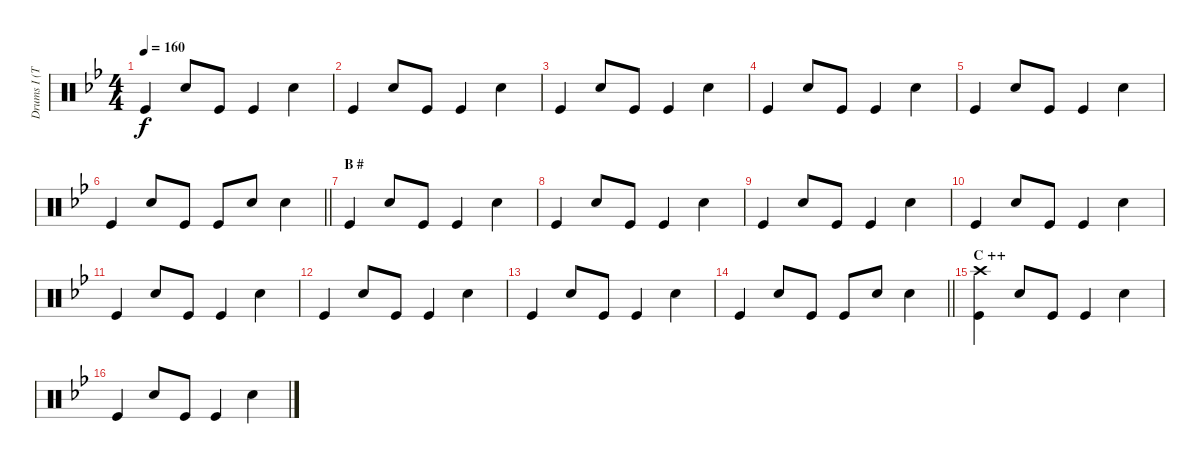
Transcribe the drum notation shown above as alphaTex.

\track ("Drums I (Tainaka Ritsu)" "Drums I (T") {instrument percussion}
\staff {score}
\articulation defaults
\ts (4 4)
\tempo 160
\clef neutral
\ks bb "Kick (hit)".4{dy f} "Snare (hit) 2".8 "Kick (hit)".8 "Kick (hit)".4 "Snare (hit) 2".4
|
"Kick (hit)".4 "Snare (hit) 2".8 "Kick (hit)".8 "Kick (hit)".4 "Snare (hit) 2".4 |
"Kick (hit)".4 "Snare (hit) 2".8 "Kick (hit)".8 "Kick (hit)".4 "Snare (hit) 2".4 |
"Kick (hit)".4 "Snare (hit) 2".8 "Kick (hit)".8 "Kick (hit)".4 "Snare (hit) 2".4 |
"Kick (hit)".4 "Snare (hit) 2".8 "Kick (hit)".8 "Kick (hit)".4 "Snare (hit) 2".4 |
\barLineRight lightlight "Kick (hit)".4 "Snare (hit) 2".8 "Kick (hit)".8 "Kick (hit)".8 "Snare (hit) 2".8 "Snare (hit) 2".4
|
\section ("" "B #")
"Kick (hit)".4 "Snare (hit) 2".8 "Kick (hit)".8 "Kick (hit)".4 "Snare (hit) 2".4 |
"Kick (hit)".4 "Snare (hit) 2".8 "Kick (hit)".8 "Kick (hit)".4 "Snare (hit) 2".4 |
"Kick (hit)".4 "Snare (hit) 2".8 "Kick (hit)".8 "Kick (hit)".4 "Snare (hit) 2".4 |
"Kick (hit)".4 "Snare (hit) 2".8 "Kick (hit)".8 "Kick (hit)".4 "Snare (hit) 2".4 |
"Kick (hit)".4 "Snare (hit) 2".8 "Kick (hit)".8 "Kick (hit)".4 "Snare (hit) 2".4 |
"Kick (hit)".4 "Snare (hit) 2".8 "Kick (hit)".8 "Kick (hit)".4 "Snare (hit) 2".4 |
"Kick (hit)".4 "Snare (hit) 2".8 "Kick (hit)".8 "Kick (hit)".4 "Snare (hit) 2".4 |
\barLineRight lightlight "Kick (hit)".4 "Snare (hit) 2".8 "Kick (hit)".8 "Kick (hit)".8 "Snare (hit) 2".8 "Snare (hit) 2".4
|
\section ("" "C ++")
("Crash high (hit)" "Kick (hit)").4 "Snare (hit) 2".8 "Kick (hit)".8 "Kick (hit)".4 "Snare (hit) 2".4 |
"Kick (hit)".4 "Snare (hit) 2".8 "Kick (hit)".8 "Kick (hit)".4 "Snare (hit) 2".4
